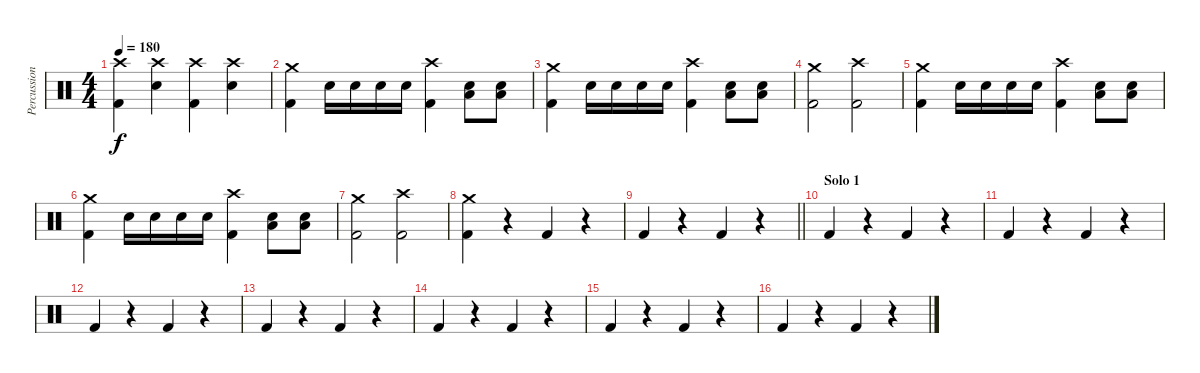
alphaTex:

\track ("Percussion" "Percussion") {instrument percussion}
\staff {score}
\articulation defaults
\ts (4 4)
\tempo 180
\clef neutral
\ks c
("Crash high (hit)" "Kick (hit) 2").4{dy f} ("Crash high (hit)" "Snare (hit) 2").4 ("Crash high (hit)" "Kick (hit) 2").4 ("Crash high (hit)" "Snare (hit) 2").4 |
("Crash medium (hit)" "Kick (hit) 2").4 "Snare (hit) 2".16 "Snare (hit) 2".16 "Snare (hit) 2".16 "Snare (hit) 2".16 ("Crash high (hit)" "Kick (hit) 2").4 ("Snare (hit) 2" "Low Tom (hit)").8 ("Snare (hit) 2" "Low Tom (hit)").8 |
("Crash medium (hit)" "Kick (hit) 2").4 "Snare (hit) 2".16 "Snare (hit) 2".16 "Snare (hit) 2".16 "Snare (hit) 2".16 ("Crash high (hit)" "Kick (hit) 2").4 ("Snare (hit) 2" "Low Tom (hit)").8 ("Snare (hit) 2" "Low Tom (hit)").8 |
("Crash medium (hit)" "Kick (hit) 2").2 ("Crash high (hit)" "Kick (hit) 2").2 |
("Crash medium (hit)" "Kick (hit) 2").4 "Snare (hit) 2".16 "Snare (hit) 2".16 "Snare (hit) 2".16 "Snare (hit) 2".16 ("Crash high (hit)" "Kick (hit) 2").4 ("Snare (hit) 2" "Low Tom (hit)").8 ("Snare (hit) 2" "Low Tom (hit)").8 |
("Crash medium (hit)" "Kick (hit) 2").4 "Snare (hit) 2".16 "Snare (hit) 2".16 "Snare (hit) 2".16 "Snare (hit) 2".16 ("Crash high (hit)" "Kick (hit) 2").4 ("Snare (hit) 2" "Low Tom (hit)").8 ("Snare (hit) 2" "Low Tom (hit)").8 |
("Crash medium (hit)" "Kick (hit) 2").2 ("Crash high (hit)" "Kick (hit) 2").2 |
("Crash medium (hit)" "Kick (hit) 2").4 r.4 "Kick (hit) 2".4 r.4 |
\barLineRight lightlight "Kick (hit) 2".4
r.4 "Kick (hit) 2".4 r.4 |
\section ("" "Solo 1")
"Kick (hit) 2".4 r.4 "Kick (hit) 2".4 r.4 |
"Kick (hit) 2".4 r.4 "Kick (hit) 2".4 r.4 |
"Kick (hit) 2".4 r.4 "Kick (hit) 2".4 r.4 |
"Kick (hit) 2".4 r.4 "Kick (hit) 2".4 r.4 |
"Kick (hit) 2".4 r.4 "Kick (hit) 2".4 r.4 |
"Kick (hit) 2".4 r.4 "Kick (hit) 2".4 r.4 |
"Kick (hit) 2".4 r.4 "Kick (hit) 2".4 r.4
